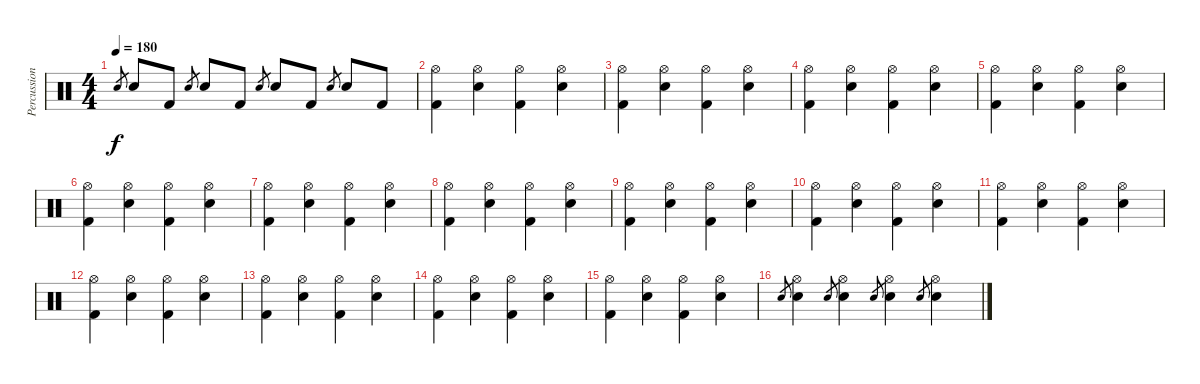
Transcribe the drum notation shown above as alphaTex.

\track ("Percussion" "Percussion") {instrument percussion}
\staff {score}
\articulation defaults
\ts (4 4)
\tempo 180
\clef neutral
\ks c "Snare (hit) 2".8{gr dy f} "Snare (hit) 2".8 "Kick (hit) 2".8 "Snare (hit) 2".8{gr} "Snare (hit) 2".8 "Kick (hit) 2".8 "Snare (hit) 2".8{gr} "Snare (hit) 2".8 "Kick (hit) 2".8 "Snare (hit) 2".8{gr} "Snare (hit) 2".8 "Kick (hit) 2".8
|
("Hi-Hat (open)" "Kick (hit) 2").4 ("Hi-Hat (open)" "Snare (hit) 2").4 ("Hi-Hat (open)" "Kick (hit) 2").4 ("Hi-Hat (open)" "Snare (hit) 2").4 |
("Hi-Hat (open)" "Kick (hit) 2").4 ("Hi-Hat (open)" "Snare (hit) 2").4 ("Hi-Hat (open)" "Kick (hit) 2").4 ("Hi-Hat (open)" "Snare (hit) 2").4 |
("Hi-Hat (open)" "Kick (hit) 2").4 ("Hi-Hat (open)" "Snare (hit) 2").4 ("Hi-Hat (open)" "Kick (hit) 2").4 ("Hi-Hat (open)" "Snare (hit) 2").4 |
("Hi-Hat (open)" "Kick (hit) 2").4 ("Hi-Hat (open)" "Snare (hit) 2").4 ("Hi-Hat (open)" "Kick (hit) 2").4 ("Hi-Hat (open)" "Snare (hit) 2").4 |
("Hi-Hat (open)" "Kick (hit) 2").4 ("Hi-Hat (open)" "Snare (hit) 2").4 ("Hi-Hat (open)" "Kick (hit) 2").4 ("Hi-Hat (open)" "Snare (hit) 2").4 |
("Hi-Hat (open)" "Kick (hit) 2").4 ("Hi-Hat (open)" "Snare (hit) 2").4 ("Hi-Hat (open)" "Kick (hit) 2").4 ("Hi-Hat (open)" "Snare (hit) 2").4 |
("Hi-Hat (open)" "Kick (hit) 2").4 ("Hi-Hat (open)" "Snare (hit) 2").4 ("Hi-Hat (open)" "Kick (hit) 2").4 ("Hi-Hat (open)" "Snare (hit) 2").4 |
("Hi-Hat (open)" "Kick (hit) 2").4 ("Hi-Hat (open)" "Snare (hit) 2").4 ("Hi-Hat (open)" "Kick (hit) 2").4 ("Hi-Hat (open)" "Snare (hit) 2").4 |
("Hi-Hat (open)" "Kick (hit) 2").4 ("Hi-Hat (open)" "Snare (hit) 2").4 ("Hi-Hat (open)" "Kick (hit) 2").4 ("Hi-Hat (open)" "Snare (hit) 2").4 |
("Hi-Hat (open)" "Kick (hit) 2").4 ("Hi-Hat (open)" "Snare (hit) 2").4 ("Hi-Hat (open)" "Kick (hit) 2").4 ("Hi-Hat (open)" "Snare (hit) 2").4 |
("Hi-Hat (open)" "Kick (hit) 2").4 ("Hi-Hat (open)" "Snare (hit) 2").4 ("Hi-Hat (open)" "Kick (hit) 2").4 ("Hi-Hat (open)" "Snare (hit) 2").4 |
("Hi-Hat (open)" "Kick (hit) 2").4 ("Hi-Hat (open)" "Snare (hit) 2").4 ("Hi-Hat (open)" "Kick (hit) 2").4 ("Hi-Hat (open)" "Snare (hit) 2").4 |
("Hi-Hat (open)" "Kick (hit) 2").4 ("Hi-Hat (open)" "Snare (hit) 2").4 ("Hi-Hat (open)" "Kick (hit) 2").4 ("Hi-Hat (open)" "Snare (hit) 2").4 |
("Hi-Hat (open)" "Kick (hit) 2").4 ("Hi-Hat (open)" "Snare (hit) 2").4 ("Hi-Hat (open)" "Kick (hit) 2").4 ("Hi-Hat (open)" "Snare (hit) 2").4 |
"Snare (hit) 2".8{gr} ("Hi-Hat (open)" "Snare (hit) 2").4 "Snare (hit) 2".8{gr} ("Hi-Hat (open)" "Snare (hit) 2").4 "Snare (hit) 2".8{gr} ("Hi-Hat (open)" "Snare (hit) 2").4 "Snare (hit) 2".8{gr} ("Hi-Hat (open)" "Snare (hit) 2").4
